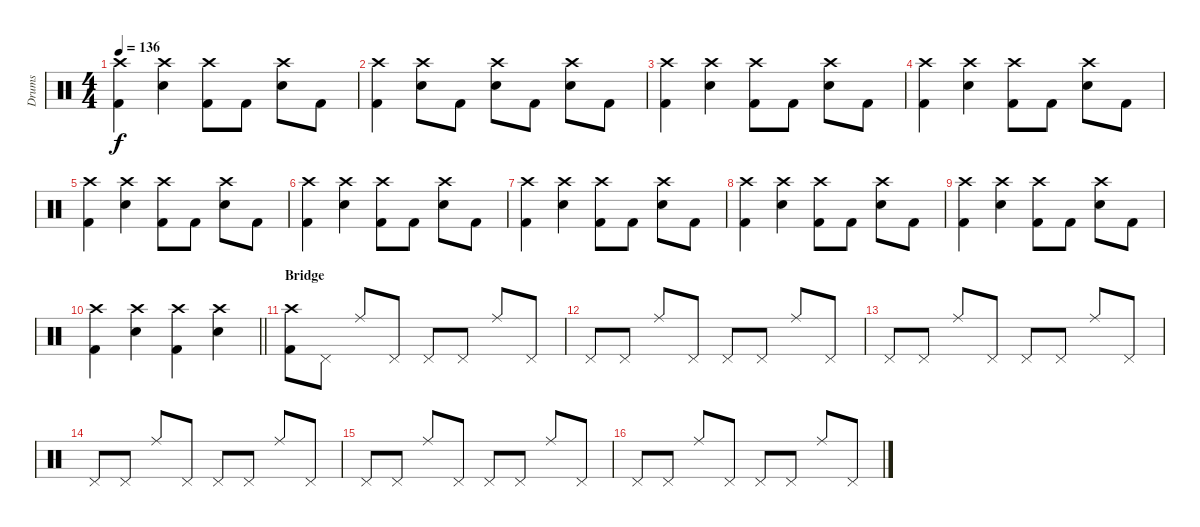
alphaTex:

\track ("Drums" "Drums") {instrument percussion}
\staff {score}
\articulation defaults
\ts (4 4)
\tempo 136
\clef neutral
\ks c
("Crash high (hit)" "Kick (hit) 2").4{dy f} ("Crash high (hit)" "Electric Snare (hit)").4 ("Crash high (hit)" "Kick (hit) 2").8 "Kick (hit) 2".8 ("Crash high (hit)" "Electric Snare (hit)").8 "Kick (hit) 2".8 |
("Crash high (hit)" "Kick (hit) 2").4 ("Crash high (hit)" "Electric Snare (hit)").8 "Kick (hit) 2".8 ("Crash high (hit)" "Electric Snare (hit)").8 "Kick (hit) 2".8 ("Crash high (hit)" "Electric Snare (hit)").8 "Kick (hit) 2".8 |
("Crash high (hit)" "Kick (hit) 2").4 ("Crash high (hit)" "Electric Snare (hit)").4 ("Crash high (hit)" "Kick (hit) 2").8 "Kick (hit) 2".8 ("Crash high (hit)" "Electric Snare (hit)").8 "Kick (hit) 2".8 |
("Crash high (hit)" "Kick (hit) 2").4 ("Crash high (hit)" "Electric Snare (hit)").4 ("Crash high (hit)" "Kick (hit) 2").8 "Kick (hit) 2".8 ("Crash high (hit)" "Electric Snare (hit)").8 "Kick (hit) 2".8 |
("Crash high (hit)" "Kick (hit) 2").4 ("Crash high (hit)" "Electric Snare (hit)").4 ("Crash high (hit)" "Kick (hit) 2").8 "Kick (hit) 2".8 ("Crash high (hit)" "Electric Snare (hit)").8 "Kick (hit) 2".8 |
("Crash high (hit)" "Kick (hit) 2").4 ("Crash high (hit)" "Electric Snare (hit)").4 ("Crash high (hit)" "Kick (hit) 2").8 "Kick (hit) 2".8 ("Crash high (hit)" "Electric Snare (hit)").8 "Kick (hit) 2".8 |
("Crash high (hit)" "Kick (hit) 2").4 ("Crash high (hit)" "Electric Snare (hit)").4 ("Crash high (hit)" "Kick (hit) 2").8 "Kick (hit) 2".8 ("Crash high (hit)" "Electric Snare (hit)").8 "Kick (hit) 2".8 |
("Crash high (hit)" "Kick (hit) 2").4 ("Crash high (hit)" "Electric Snare (hit)").4 ("Crash high (hit)" "Kick (hit) 2").8 "Kick (hit) 2".8 ("Crash high (hit)" "Electric Snare (hit)").8 "Kick (hit) 2".8 |
("Crash high (hit)" "Kick (hit) 2").4 ("Crash high (hit)" "Electric Snare (hit)").4 ("Crash high (hit)" "Kick (hit) 2").8 "Kick (hit) 2".8 ("Crash high (hit)" "Electric Snare (hit)").8 "Kick (hit) 2".8 |
\barLineRight lightlight
("Crash high (hit)" "Kick (hit) 2").4 ("Crash high (hit)" "Electric Snare (hit)").4 ("Crash high (hit)" "Kick (hit) 2").4 ("Crash high (hit)" "Electric Snare (hit)").4 |
\section ("" "Bridge")
("Crash high (hit)" "Kick (hit) 2").8 "Pedal Hi-Hat (hit)".8 "Ride (middle)".8 "Pedal Hi-Hat (hit)".8 "Pedal Hi-Hat (hit)".8 "Pedal Hi-Hat (hit)".8 "Ride (middle)".8 "Pedal Hi-Hat (hit)".8 |
"Pedal Hi-Hat (hit)".8 "Pedal Hi-Hat (hit)".8 "Ride (middle)".8 "Pedal Hi-Hat (hit)".8 "Pedal Hi-Hat (hit)".8 "Pedal Hi-Hat (hit)".8 "Ride (middle)".8 "Pedal Hi-Hat (hit)".8 |
"Pedal Hi-Hat (hit)".8 "Pedal Hi-Hat (hit)".8 "Ride (middle)".8 "Pedal Hi-Hat (hit)".8 "Pedal Hi-Hat (hit)".8 "Pedal Hi-Hat (hit)".8 "Ride (middle)".8 "Pedal Hi-Hat (hit)".8 |
"Pedal Hi-Hat (hit)".8 "Pedal Hi-Hat (hit)".8 "Ride (middle)".8 "Pedal Hi-Hat (hit)".8 "Pedal Hi-Hat (hit)".8 "Pedal Hi-Hat (hit)".8 "Ride (middle)".8 "Pedal Hi-Hat (hit)".8 |
"Pedal Hi-Hat (hit)".8 "Pedal Hi-Hat (hit)".8 "Ride (middle)".8 "Pedal Hi-Hat (hit)".8 "Pedal Hi-Hat (hit)".8 "Pedal Hi-Hat (hit)".8 "Ride (middle)".8 "Pedal Hi-Hat (hit)".8 |
"Pedal Hi-Hat (hit)".8 "Pedal Hi-Hat (hit)".8 "Ride (middle)".8 "Pedal Hi-Hat (hit)".8 "Pedal Hi-Hat (hit)".8 "Pedal Hi-Hat (hit)".8 "Ride (middle)".8 "Pedal Hi-Hat (hit)".8
